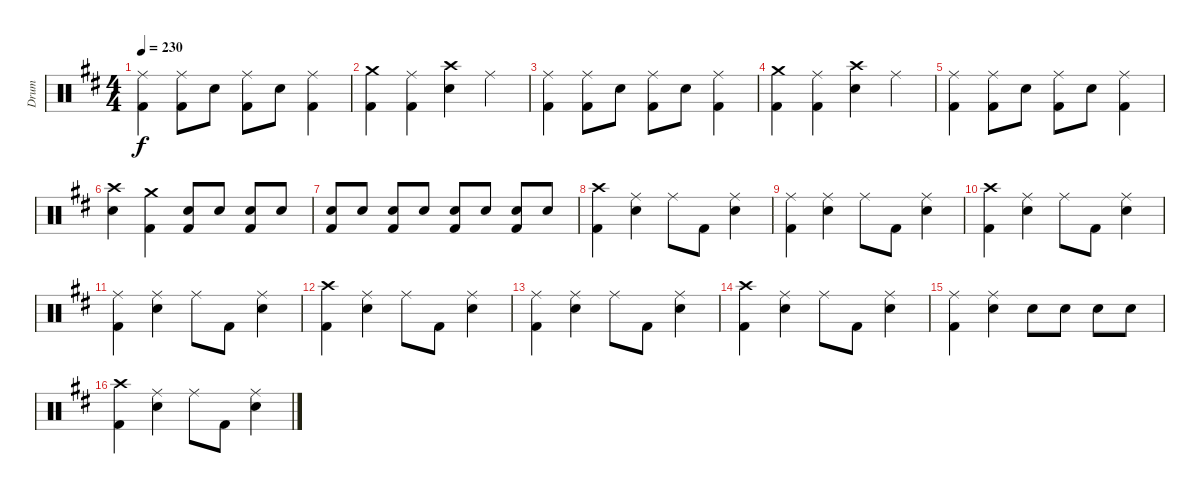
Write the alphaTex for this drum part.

\track ("Drum" "Drum") {instrument percussion}
\staff {score}
\articulation defaults
\ts (4 4)
\tempo 230
\clef neutral
\ks d
("Ride (middle)" "Kick (hit) 2").4{dy f} ("Ride (middle)" "Kick (hit) 2").8 "Snare (hit) 2".8 ("Ride (middle)" "Kick (hit) 2").8 "Snare (hit) 2".8 ("Ride (middle)" "Kick (hit) 2").4 |
("Crash medium (hit)" "Kick (hit) 2").4 ("Ride (middle)" "Kick (hit) 2").4 ("Crash high (hit)" "Snare (hit) 2").4 "Ride (middle)".4 |
("Ride (middle)" "Kick (hit) 2").4 ("Ride (middle)" "Kick (hit) 2").8 "Snare (hit) 2".8 ("Ride (middle)" "Kick (hit) 2").8 "Snare (hit) 2".8 ("Ride (middle)" "Kick (hit) 2").4 |
("Crash medium (hit)" "Kick (hit) 2").4 ("Ride (middle)" "Kick (hit) 2").4 ("Crash high (hit)" "Snare (hit) 2").4 "Ride (middle)".4 |
("Ride (middle)" "Kick (hit) 2").4 ("Ride (middle)" "Kick (hit) 2").8 "Snare (hit) 2".8 ("Ride (middle)" "Kick (hit) 2").8 "Snare (hit) 2".8 ("Ride (middle)" "Kick (hit) 2").4 |
("Crash high (hit)" "Snare (hit) 2").4 ("Crash medium (hit)" "Kick (hit) 2").4 ("Snare (hit) 2" "Kick (hit) 2").8 "Snare (hit) 2".8 ("Snare (hit) 2" "Kick (hit) 2").8 "Snare (hit) 2".8 |
("Snare (hit) 2" "Kick (hit) 2").8 "Snare (hit) 2".8 ("Snare (hit) 2" "Kick (hit) 2").8 "Snare (hit) 2".8 ("Snare (hit) 2" "Kick (hit) 2").8 "Snare (hit) 2".8 ("Snare (hit) 2" "Kick (hit) 2").8 "Snare (hit) 2".8 |
("Crash high (hit)" "Kick (hit) 2").4 ("Ride (middle)" "Snare (hit) 2").4 "Ride (middle)".8 "Kick (hit) 2".8 ("Ride (middle)" "Snare (hit) 2").4 |
("Ride (middle)" "Kick (hit) 2").4 ("Ride (middle)" "Snare (hit) 2").4 "Ride (middle)".8 "Kick (hit) 2".8 ("Ride (middle)" "Snare (hit) 2").4 |
("Crash high (hit)" "Kick (hit) 2").4 ("Ride (middle)" "Snare (hit) 2").4 "Ride (middle)".8 "Kick (hit) 2".8 ("Ride (middle)" "Snare (hit) 2").4 |
("Ride (middle)" "Kick (hit) 2").4 ("Ride (middle)" "Snare (hit) 2").4 "Ride (middle)".8 "Kick (hit) 2".8 ("Ride (middle)" "Snare (hit) 2").4 |
("Crash high (hit)" "Kick (hit) 2").4 ("Ride (middle)" "Snare (hit) 2").4 "Ride (middle)".8 "Kick (hit) 2".8 ("Ride (middle)" "Snare (hit) 2").4 |
("Ride (middle)" "Kick (hit) 2").4 ("Ride (middle)" "Snare (hit) 2").4 "Ride (middle)".8 "Kick (hit) 2".8 ("Ride (middle)" "Snare (hit) 2").4 |
("Crash high (hit)" "Kick (hit) 2").4 ("Ride (middle)" "Snare (hit) 2").4 "Ride (middle)".8 "Kick (hit) 2".8 ("Ride (middle)" "Snare (hit) 2").4 |
("Ride (middle)" "Kick (hit) 2").4 ("Ride (middle)" "Snare (hit) 2").4 "Snare (hit) 2".8 "Snare (hit) 2".8 "Snare (hit) 2".8 "Snare (hit) 2".8 |
("Crash high (hit)" "Kick (hit) 2").4 ("Ride (middle)" "Snare (hit) 2").4 "Ride (middle)".8 "Kick (hit) 2".8 ("Ride (middle)" "Snare (hit) 2").4
